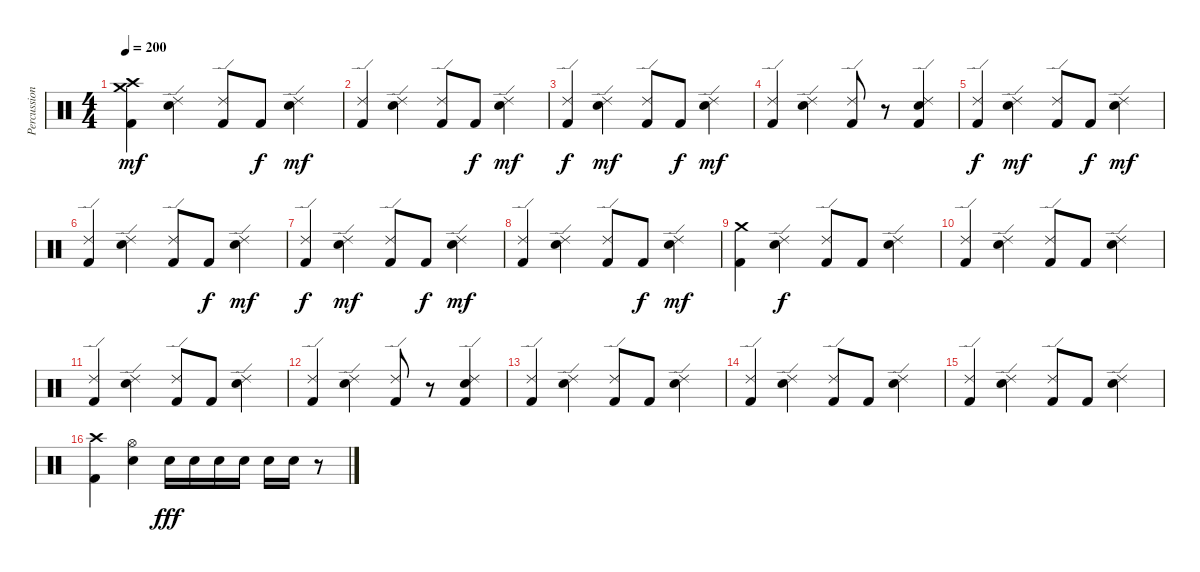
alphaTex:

\track ("Percussions 1" "Percussion") {instrument percussion}
\staff {score}
\articulation defaults
\ts (4 4)
\tempo 200
\clef neutral
\ks c
("Crash high (hit)" "Crash medium (hit)" "Kick (hit) 2").4{dy mf} ("Ride (edge) 2" "Snare (hit) 2").4 ("Ride (edge) 2" "Kick (hit) 2").8 "Kick (hit) 2".8{dy f} ("Ride (edge) 2" "Snare (hit) 2").4{dy mf} |
("Ride (edge) 2" "Kick (hit) 2").4 ("Ride (edge) 2" "Snare (hit) 2").4 ("Ride (edge) 2" "Kick (hit) 2").8 "Kick (hit) 2".8{dy f} ("Ride (edge) 2" "Snare (hit) 2").4{dy mf} |
("Ride (edge) 2" "Kick (hit) 2").4{dy f} ("Ride (edge) 2" "Snare (hit) 2").4{dy mf} ("Ride (edge) 2" "Kick (hit) 2").8 "Kick (hit) 2".8{dy f} ("Ride (edge) 2" "Snare (hit) 2").4{dy mf} |
("Ride (edge) 2" "Kick (hit) 2").4 ("Ride (edge) 2" "Snare (hit) 2").4 ("Ride (edge) 2" "Kick (hit) 2").8 r.8 ("Ride (edge) 2" "Snare (hit) 2" "Kick (hit) 2").4 |
("Ride (edge) 2" "Kick (hit) 2").4{dy f} ("Ride (edge) 2" "Snare (hit) 2").4{dy mf} ("Ride (edge) 2" "Kick (hit) 2").8 "Kick (hit) 2".8{dy f} ("Ride (edge) 2" "Snare (hit) 2").4{dy mf} |
("Ride (edge) 2" "Kick (hit) 2").4 ("Ride (edge) 2" "Snare (hit) 2").4 ("Ride (edge) 2" "Kick (hit) 2").8 "Kick (hit) 2".8{dy f} ("Ride (edge) 2" "Snare (hit) 2").4{dy mf} |
("Ride (edge) 2" "Kick (hit) 2").4{dy f} ("Ride (edge) 2" "Snare (hit) 2").4{dy mf} ("Ride (edge) 2" "Kick (hit) 2").8 "Kick (hit) 2".8{dy f} ("Ride (edge) 2" "Snare (hit) 2").4{dy mf} |
("Ride (edge) 2" "Kick (hit) 2").4 ("Ride (edge) 2" "Snare (hit) 2").4 ("Ride (edge) 2" "Kick (hit) 2").8 "Kick (hit) 2".8{dy f} ("Ride (edge) 2" "Snare (hit) 2").4{dy mf} |
("Crash medium (hit)" "Kick (hit) 2").4 ("Ride (edge) 2" "Snare (hit) 2").4{dy f} ("Ride (edge) 2" "Kick (hit) 2").8 "Kick (hit) 2".8 ("Ride (edge) 2" "Snare (hit) 2").4 |
("Ride (edge) 2" "Kick (hit) 2").4 ("Ride (edge) 2" "Snare (hit) 2").4 ("Ride (edge) 2" "Kick (hit) 2").8 "Kick (hit) 2".8 ("Ride (edge) 2" "Snare (hit) 2").4 |
("Ride (edge) 2" "Kick (hit) 2").4 ("Ride (edge) 2" "Snare (hit) 2").4 ("Ride (edge) 2" "Kick (hit) 2").8 "Kick (hit) 2".8 ("Ride (edge) 2" "Snare (hit) 2").4 |
("Ride (edge) 2" "Kick (hit) 2").4 ("Ride (edge) 2" "Snare (hit) 2").4 ("Ride (edge) 2" "Kick (hit) 2").8 r.8 ("Ride (edge) 2" "Snare (hit) 2" "Kick (hit) 2").4 |
("Ride (edge) 2" "Kick (hit) 2").4 ("Ride (edge) 2" "Snare (hit) 2").4 ("Ride (edge) 2" "Kick (hit) 2").8 "Kick (hit) 2".8 ("Ride (edge) 2" "Snare (hit) 2").4 |
("Ride (edge) 2" "Kick (hit) 2").4 ("Ride (edge) 2" "Snare (hit) 2").4 ("Ride (edge) 2" "Kick (hit) 2").8 "Kick (hit) 2".8 ("Ride (edge) 2" "Snare (hit) 2").4 |
("Ride (edge) 2" "Kick (hit) 2").4 ("Ride (edge) 2" "Snare (hit) 2").4 ("Ride (edge) 2" "Kick (hit) 2").8 "Kick (hit) 2".8 ("Ride (edge) 2" "Snare (hit) 2").4 |
("Crash high (hit)" "Kick (hit) 2").4 ("Hi-Hat (open)" "Snare (hit) 2").4 "Snare (hit) 2".16{dy fff} "Snare (hit) 2".16 "Snare (hit) 2".16 "Snare (hit) 2".16 "Snare (hit) 2".16 "Snare (hit) 2".16 r.8
